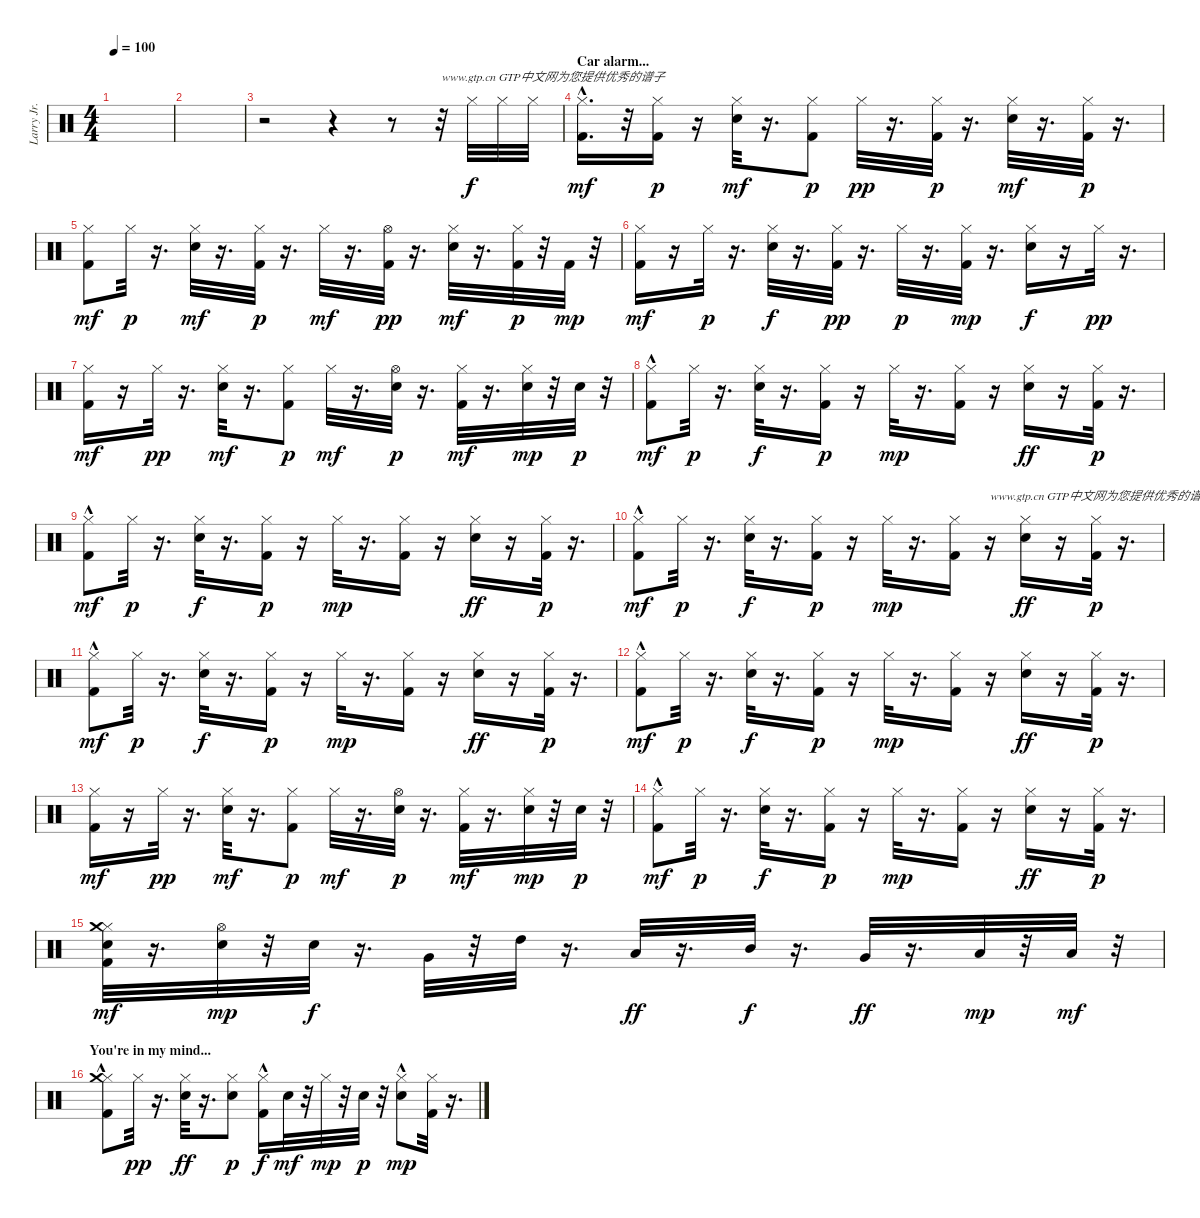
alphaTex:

\track ("Larry Jr." "Larry Jr.") {instrument percussion}
\staff {score}
\articulation defaults
\ts (4 4)
\tempo 100
\clef neutral
\ks c
|
|
r.2 r.4 r.8 r.32{txt "www.gtp.cn GTP中文网为您提供优秀的谱子"} "Hi-Hat (closed)".32 "Hi-Hat (closed)".32 "Hi-Hat (closed)".32 |
\section ("" "Car alarm...")
("Kick (hit) 2"{hac} "Hi-Hat (closed)").16{d dy mf} r.32 ("Kick (hit) 2" "Hi-Hat (closed)").16{dy p} r.16 ("Electric Snare (hit)" "Hi-Hat (closed)").32{dy mf} r.16{d} ("Kick (hit) 2" "Hi-Hat (closed)").8{dy p} "Hi-Hat (closed)".32{dy pp} r.16{d} ("Kick (hit) 2" "Hi-Hat (closed)").32{dy p} r.16{d} ("Electric Snare (hit)" "Hi-Hat (closed)").32{dy mf} r.16{d} ("Kick (hit) 2" "Hi-Hat (closed)").32{dy p} r.16{d} |
("Kick (hit) 2" "Hi-Hat (closed)").8{dy mf} "Hi-Hat (closed)".32{dy p} r.16{d} ("Electric Snare (hit)" "Hi-Hat (closed)").32{dy mf} r.16{d} ("Kick (hit) 2" "Hi-Hat (closed)").32{dy p} r.16{d} "Hi-Hat (closed)".32{dy mf} r.16{d} ("Kick (hit) 2" "Hi-Hat (open)").32{dy pp} r.16{d} ("Electric Snare (hit)" "Hi-Hat (closed)").32{dy mf} r.16{d} ("Kick (hit) 2" "Hi-Hat (closed)").32{dy p} r.32 "Kick (hit) 2".32{dy mp} r.32 |
("Kick (hit) 2" "Hi-Hat (closed)").16{dy mf} r.16 "Hi-Hat (closed)".32{dy p} r.16{d} ("Electric Snare (hit)" "Hi-Hat (closed)").32{dy f} r.16{d} ("Kick (hit) 2" "Hi-Hat (closed)").32{dy pp} r.16{d} "Hi-Hat (closed)".32{dy p} r.16{d} ("Kick (hit) 2" "Hi-Hat (closed)").32{dy mp} r.16{d} ("Electric Snare (hit)" "Hi-Hat (closed)").16{dy f} r.16 "Hi-Hat (closed)".32{dy pp} r.16{d} |
("Kick (hit) 2" "Hi-Hat (closed)").16{dy mf} r.16 "Hi-Hat (closed)".32{dy pp} r.16{d} ("Electric Snare (hit)" "Hi-Hat (closed)").32{dy mf} r.16{d} ("Kick (hit) 2" "Hi-Hat (closed)").8{dy p} "Hi-Hat (closed)".32{dy mf} r.16{d} ("Electric Snare (hit)" "Hi-Hat (open)").32{dy p} r.16{d} ("Kick (hit) 2" "Hi-Hat (closed)").32{dy mf} r.16{d} ("Electric Snare (hit)" "Hi-Hat (closed)").32{dy mp} r.32 "Electric Snare (hit)".32{dy p} r.32 |
("Kick (hit) 2"{hac} "Hi-Hat (closed)").8{dy mf} "Hi-Hat (closed)".32{dy p} r.16{d} ("Electric Snare (hit)" "Hi-Hat (closed)").32{dy f} r.16{d} ("Kick (hit) 2" "Hi-Hat (closed)").16{dy p} r.16 "Hi-Hat (closed)".32{dy mp} r.16{d} ("Kick (hit) 2" "Hi-Hat (closed)").16 r.16 ("Electric Snare (hit)" "Hi-Hat (closed)").16{dy ff} r.16 ("Kick (hit) 2" "Hi-Hat (closed)").32{dy p} r.16{d} |
("Kick (hit) 2"{hac} "Hi-Hat (closed)").8{dy mf} "Hi-Hat (closed)".32{dy p} r.16{d} ("Electric Snare (hit)" "Hi-Hat (closed)").32{dy f} r.16{d} ("Kick (hit) 2" "Hi-Hat (closed)").16{dy p} r.16 "Hi-Hat (closed)".32{dy mp} r.16{d} ("Kick (hit) 2" "Hi-Hat (closed)").16 r.16 ("Electric Snare (hit)" "Hi-Hat (closed)").16{dy ff} r.16 ("Kick (hit) 2" "Hi-Hat (closed)").32{dy p} r.16{d} |
("Kick (hit) 2"{hac} "Hi-Hat (closed)").8{dy mf} "Hi-Hat (closed)".32{dy p} r.16{d} ("Electric Snare (hit)" "Hi-Hat (closed)").32{dy f} r.16{d} ("Kick (hit) 2" "Hi-Hat (closed)").16{dy p} r.16 "Hi-Hat (closed)".32{dy mp} r.16{d} ("Kick (hit) 2" "Hi-Hat (closed)").16 r.16{txt "www.gtp.cn GTP中文网为您提供优秀的谱子"} ("Electric Snare (hit)" "Hi-Hat (closed)").16{dy ff} r.16 ("Kick (hit) 2" "Hi-Hat (closed)").32{dy p} r.16{d} |
("Kick (hit) 2"{hac} "Hi-Hat (closed)").8{dy mf} "Hi-Hat (closed)".32{dy p} r.16{d} ("Electric Snare (hit)" "Hi-Hat (closed)").32{dy f} r.16{d} ("Kick (hit) 2" "Hi-Hat (closed)").16{dy p} r.16 "Hi-Hat (closed)".32{dy mp} r.16{d} ("Kick (hit) 2" "Hi-Hat (closed)").16 r.16 ("Electric Snare (hit)" "Hi-Hat (closed)").16{dy ff} r.16 ("Kick (hit) 2" "Hi-Hat (closed)").32{dy p} r.16{d} |
("Kick (hit) 2"{hac} "Hi-Hat (closed)").8{dy mf} "Hi-Hat (closed)".32{dy p} r.16{d} ("Electric Snare (hit)" "Hi-Hat (closed)").32{dy f} r.16{d} ("Kick (hit) 2" "Hi-Hat (closed)").16{dy p} r.16 "Hi-Hat (closed)".32{dy mp} r.16{d} ("Kick (hit) 2" "Hi-Hat (closed)").16 r.16 ("Electric Snare (hit)" "Hi-Hat (closed)").16{dy ff} r.16 ("Kick (hit) 2" "Hi-Hat (closed)").32{dy p} r.16{d} |
("Kick (hit) 2" "Hi-Hat (closed)").16{dy mf} r.16 "Hi-Hat (closed)".32{dy pp} r.16{d} ("Electric Snare (hit)" "Hi-Hat (closed)").32{dy mf} r.16{d} ("Kick (hit) 2" "Hi-Hat (closed)").8{dy p} "Hi-Hat (closed)".32{dy mf} r.16{d} ("Electric Snare (hit)" "Hi-Hat (open)").32{dy p} r.16{d} ("Kick (hit) 2" "Hi-Hat (closed)").32{dy mf} r.16{d} ("Electric Snare (hit)" "Hi-Hat (closed)").32{dy mp} r.32 "Electric Snare (hit)".32{dy p} r.32 |
("Kick (hit) 2"{hac} "Hi-Hat (closed)").8{dy mf} "Hi-Hat (closed)".32{dy p} r.16{d} ("Electric Snare (hit)" "Hi-Hat (closed)").32{dy f} r.16{d} ("Kick (hit) 2" "Hi-Hat (closed)").16{dy p} r.16 "Hi-Hat (closed)".32{dy mp} r.16{d} ("Kick (hit) 2" "Hi-Hat (closed)").16 r.16 ("Electric Snare (hit)" "Hi-Hat (closed)").16{dy ff} r.16 ("Kick (hit) 2" "Hi-Hat (closed)").32{dy p} r.16{d} |
("Kick (hit) 2" "Electric Snare (hit)" "Hi-Hat (closed)" "Crash medium (hit)").32{dy mf} r.16{d} ("Electric Snare (hit)" "Hi-Hat (open)").32{dy mp} r.32 "Electric Snare (hit)".32{dy f} r.16{d} "Very Low Tom (hit)".32 r.32 "High Tom (hit)".32 r.16{d} "Low Tom (hit)".32{dy ff} r.16{d} "Mid Tom (hit)".32{dy f} r.16{d} "Very Low Tom (hit)".32{dy ff} r.16{d} "Low Tom (hit)".32{dy mp} r.32 "Low Tom (hit)".32{dy mf} r.32 |
\section ("" "You're in my mind...")
("Kick (hit) 2"{hac} "Hi-Hat (closed)" "Crash medium (hit)").8 "Hi-Hat (closed)".32{dy pp} r.16{d} ("Electric Snare (hit)" "Hi-Hat (closed)").32{dy ff} r.16{d} ("Electric Snare (hit)" "Hi-Hat (closed)").8{dy p} ("Kick (hit) 2"{hac} "Hi-Hat (closed)").16{dy f} "Electric Snare (hit)".32{dy mf} r.32 "Hi-Hat (closed)".32{dy mp} r.32 "Electric Snare (hit)".32{dy p} r.32 ("Electric Snare (hit)"{hac} "Hi-Hat (closed)").8{dy mp} ("Kick (hit) 2" "Hi-Hat (closed)").32 r.16{d}
